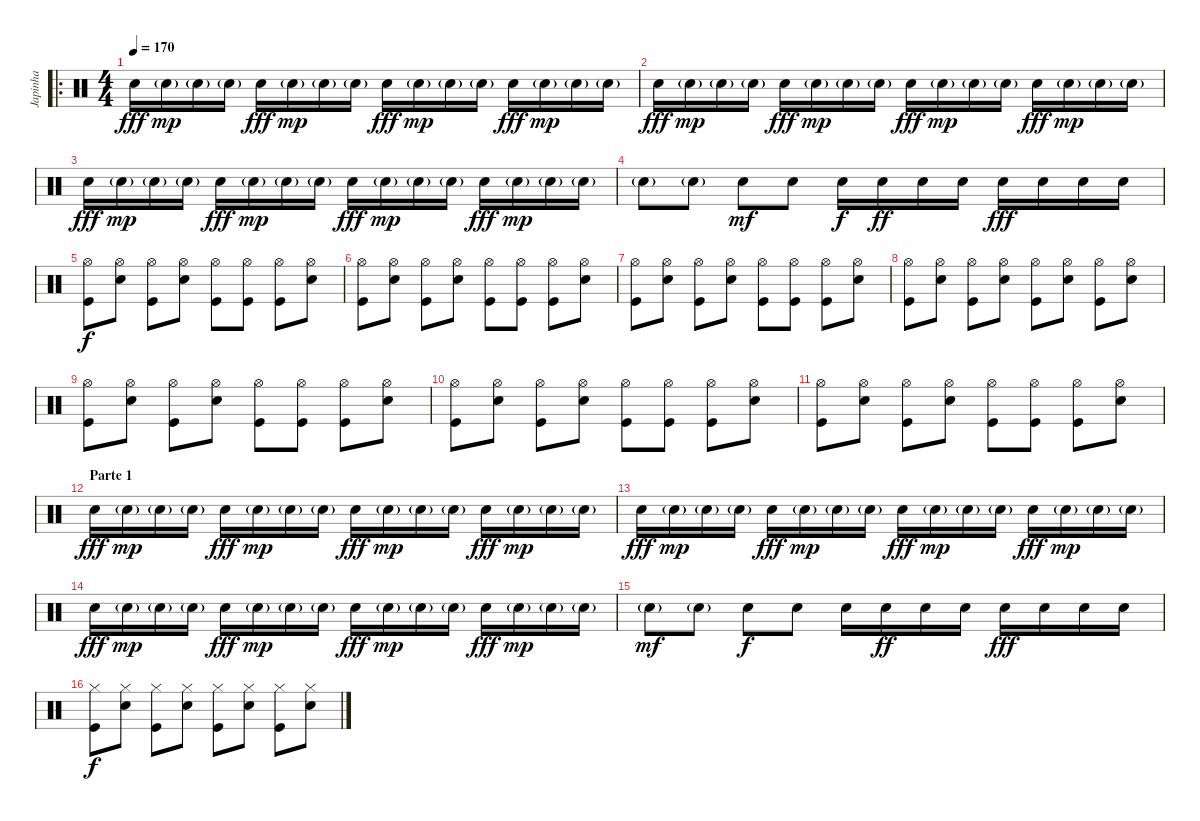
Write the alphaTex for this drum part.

\track ("Japinha" "Japinha") {instrument percussion}
\staff {score}
\articulation defaults
\ro
\ts (4 4)
\tempo 170
\clef neutral
\ks c "Electric Snare (hit)".16{dy fff} "Electric Snare (hit)"{g}.16{dy mp} "Electric Snare (hit)"{g}.16 "Electric Snare (hit)"{g}.16 "Electric Snare (hit)".16{dy fff} "Electric Snare (hit)"{g}.16{dy mp} "Electric Snare (hit)"{g}.16 "Electric Snare (hit)"{g}.16 "Electric Snare (hit)".16{dy fff} "Electric Snare (hit)"{g}.16{dy mp} "Electric Snare (hit)"{g}.16 "Electric Snare (hit)"{g}.16 "Electric Snare (hit)".16{dy fff} "Electric Snare (hit)"{g}.16{dy mp} "Electric Snare (hit)"{g}.16 "Electric Snare (hit)"{g}.16
|
"Electric Snare (hit)".16{dy fff} "Electric Snare (hit)"{g}.16{dy mp} "Electric Snare (hit)"{g}.16 "Electric Snare (hit)"{g}.16 "Electric Snare (hit)".16{dy fff} "Electric Snare (hit)"{g}.16{dy mp} "Electric Snare (hit)"{g}.16 "Electric Snare (hit)"{g}.16 "Electric Snare (hit)".16{dy fff} "Electric Snare (hit)"{g}.16{dy mp} "Electric Snare (hit)"{g}.16 "Electric Snare (hit)"{g}.16 "Electric Snare (hit)".16{dy fff} "Electric Snare (hit)"{g}.16{dy mp} "Electric Snare (hit)"{g}.16 "Electric Snare (hit)"{g}.16 |
"Electric Snare (hit)".16{dy fff} "Electric Snare (hit)"{g}.16{dy mp} "Electric Snare (hit)"{g}.16 "Electric Snare (hit)"{g}.16 "Electric Snare (hit)".16{dy fff} "Electric Snare (hit)"{g}.16{dy mp} "Electric Snare (hit)"{g}.16 "Electric Snare (hit)"{g}.16 "Electric Snare (hit)".16{dy fff} "Electric Snare (hit)"{g}.16{dy mp} "Electric Snare (hit)"{g}.16 "Electric Snare (hit)"{g}.16 "Electric Snare (hit)".16{dy fff} "Electric Snare (hit)"{g}.16{dy mp} "Electric Snare (hit)"{g}.16 "Electric Snare (hit)"{g}.16 |
"Electric Snare (hit)"{g}.8 "Electric Snare (hit)"{g}.8 "Electric Snare (hit)".8{dy mf} "Electric Snare (hit)".8 "Electric Snare (hit)".16{dy f} "Electric Snare (hit)".16{dy ff} "Electric Snare (hit)".16 "Electric Snare (hit)".16 "Electric Snare (hit)".16{dy fff} "Electric Snare (hit)".16 "Electric Snare (hit)".16 "Electric Snare (hit)".16 |
("Hi-Hat (open)" "Kick (hit)").8{dy f} ("Hi-Hat (open)" "Electric Snare (hit)").8 ("Hi-Hat (open)" "Kick (hit)").8 ("Hi-Hat (open)" "Electric Snare (hit)").8 ("Hi-Hat (open)" "Kick (hit)").8 ("Hi-Hat (open)" "Kick (hit)").8 ("Hi-Hat (open)" "Kick (hit)").8 ("Hi-Hat (open)" "Electric Snare (hit)").8 |
("Hi-Hat (open)" "Kick (hit)").8 ("Hi-Hat (open)" "Electric Snare (hit)").8 ("Hi-Hat (open)" "Kick (hit)").8 ("Hi-Hat (open)" "Electric Snare (hit)").8 ("Hi-Hat (open)" "Kick (hit)").8 ("Hi-Hat (open)" "Kick (hit)").8 ("Hi-Hat (open)" "Kick (hit)").8 ("Hi-Hat (open)" "Electric Snare (hit)").8 |
("Hi-Hat (open)" "Kick (hit)").8 ("Hi-Hat (open)" "Electric Snare (hit)").8 ("Hi-Hat (open)" "Kick (hit)").8 ("Hi-Hat (open)" "Electric Snare (hit)").8 ("Hi-Hat (open)" "Kick (hit)").8 ("Hi-Hat (open)" "Kick (hit)").8 ("Hi-Hat (open)" "Kick (hit)").8 ("Hi-Hat (open)" "Electric Snare (hit)").8 |
("Hi-Hat (open)" "Kick (hit)").8 ("Hi-Hat (open)" "Electric Snare (hit)").8 ("Hi-Hat (open)" "Kick (hit)").8 ("Hi-Hat (open)" "Electric Snare (hit)").8 ("Hi-Hat (open)" "Kick (hit)").8 ("Hi-Hat (open)" "Electric Snare (hit)").8 ("Hi-Hat (open)" "Kick (hit)").8 ("Hi-Hat (open)" "Electric Snare (hit)").8 |
("Hi-Hat (open)" "Kick (hit)").8 ("Hi-Hat (open)" "Electric Snare (hit)").8 ("Hi-Hat (open)" "Kick (hit)").8 ("Hi-Hat (open)" "Electric Snare (hit)").8 ("Hi-Hat (open)" "Kick (hit)").8 ("Hi-Hat (open)" "Kick (hit)").8 ("Hi-Hat (open)" "Kick (hit)").8 ("Hi-Hat (open)" "Electric Snare (hit)").8 |
("Hi-Hat (open)" "Kick (hit)").8 ("Hi-Hat (open)" "Electric Snare (hit)").8 ("Hi-Hat (open)" "Kick (hit)").8 ("Hi-Hat (open)" "Electric Snare (hit)").8 ("Hi-Hat (open)" "Kick (hit)").8 ("Hi-Hat (open)" "Kick (hit)").8 ("Hi-Hat (open)" "Kick (hit)").8 ("Hi-Hat (open)" "Electric Snare (hit)").8 |
("Hi-Hat (open)" "Kick (hit)").8 ("Hi-Hat (open)" "Electric Snare (hit)").8 ("Hi-Hat (open)" "Kick (hit)").8 ("Hi-Hat (open)" "Electric Snare (hit)").8 ("Hi-Hat (open)" "Kick (hit)").8 ("Hi-Hat (open)" "Kick (hit)").8 ("Hi-Hat (open)" "Kick (hit)").8 ("Hi-Hat (open)" "Electric Snare (hit)").8 |
\section ("" "Parte 1")
"Electric Snare (hit)".16{dy fff} "Electric Snare (hit)"{g}.16{dy mp} "Electric Snare (hit)"{g}.16 "Electric Snare (hit)"{g}.16 "Electric Snare (hit)".16{dy fff} "Electric Snare (hit)"{g}.16{dy mp} "Electric Snare (hit)"{g}.16 "Electric Snare (hit)"{g}.16 "Electric Snare (hit)".16{dy fff} "Electric Snare (hit)"{g}.16{dy mp} "Electric Snare (hit)"{g}.16 "Electric Snare (hit)"{g}.16 "Electric Snare (hit)".16{dy fff} "Electric Snare (hit)"{g}.16{dy mp} "Electric Snare (hit)"{g}.16 "Electric Snare (hit)"{g}.16 |
"Electric Snare (hit)".16{dy fff} "Electric Snare (hit)"{g}.16{dy mp} "Electric Snare (hit)"{g}.16 "Electric Snare (hit)"{g}.16 "Electric Snare (hit)".16{dy fff} "Electric Snare (hit)"{g}.16{dy mp} "Electric Snare (hit)"{g}.16 "Electric Snare (hit)"{g}.16 "Electric Snare (hit)".16{dy fff} "Electric Snare (hit)"{g}.16{dy mp} "Electric Snare (hit)"{g}.16 "Electric Snare (hit)"{g}.16 "Electric Snare (hit)".16{dy fff} "Electric Snare (hit)"{g}.16{dy mp} "Electric Snare (hit)"{g}.16 "Electric Snare (hit)"{g}.16 |
"Electric Snare (hit)".16{dy fff} "Electric Snare (hit)"{g}.16{dy mp} "Electric Snare (hit)"{g}.16 "Electric Snare (hit)"{g}.16 "Electric Snare (hit)".16{dy fff} "Electric Snare (hit)"{g}.16{dy mp} "Electric Snare (hit)"{g}.16 "Electric Snare (hit)"{g}.16 "Electric Snare (hit)".16{dy fff} "Electric Snare (hit)"{g}.16{dy mp} "Electric Snare (hit)"{g}.16 "Electric Snare (hit)"{g}.16 "Electric Snare (hit)".16{dy fff} "Electric Snare (hit)"{g}.16{dy mp} "Electric Snare (hit)"{g}.16 "Electric Snare (hit)"{g}.16 |
"Electric Snare (hit)"{g}.8{dy mf} "Electric Snare (hit)"{g}.8 "Electric Snare (hit)".8{dy f} "Electric Snare (hit)".8 "Electric Snare (hit)".16 "Electric Snare (hit)".16{dy ff} "Electric Snare (hit)".16 "Electric Snare (hit)".16 "Electric Snare (hit)".16{dy fff} "Electric Snare (hit)".16 "Electric Snare (hit)".16 "Electric Snare (hit)".16 |
("Hi-Hat (closed)" "Kick (hit)").8{dy f} ("Hi-Hat (closed)" "Electric Snare (hit)").8 ("Hi-Hat (closed)" "Kick (hit)").8 ("Hi-Hat (closed)" "Electric Snare (hit)").8 ("Hi-Hat (closed)" "Kick (hit)").8 ("Hi-Hat (closed)" "Electric Snare (hit)").8 ("Hi-Hat (closed)" "Kick (hit)").8 ("Hi-Hat (closed)" "Electric Snare (hit)").8
